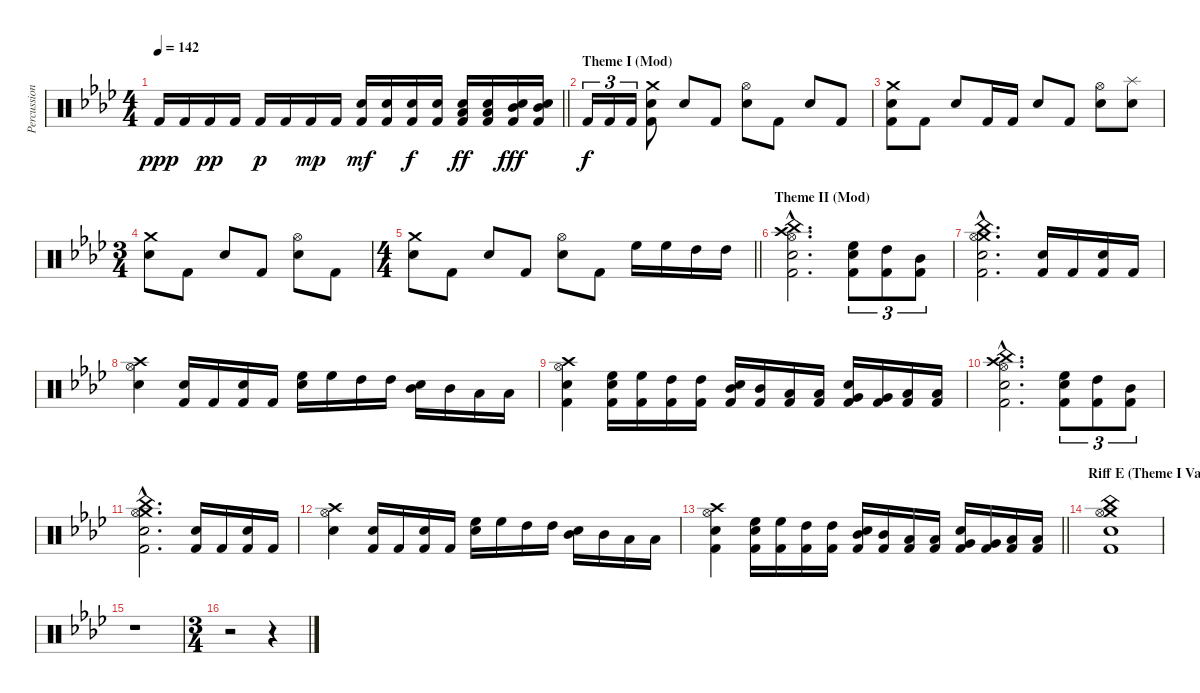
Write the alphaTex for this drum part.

\track ("Percussion" "Percussion") {instrument percussion}
\staff {score}
\articulation defaults
\ts (4 4)
\tempo 142
\clef neutral
\barLineRight lightlight
\ks fminor "Kick (hit) 2".16{dy ppp} "Kick (hit) 2".16 "Kick (hit) 2".16{dy pp} "Kick (hit) 2".16 "Kick (hit) 2".16{dy p} "Kick (hit) 2".16 "Kick (hit) 2".16{dy mp} "Kick (hit) 2".16
("Snare (hit) 2" "Kick (hit) 2").16{dy mf} ("Snare (hit) 2" "Kick (hit) 2").16 ("Snare (hit) 2" "Kick (hit) 2").16{dy f} ("Snare (hit) 2" "Kick (hit) 2").16 ("Low Tom (hit)" "Snare (hit) 2" "Kick (hit) 2").16{dy ff} ("Low Tom (hit)" "Snare (hit) 2" "Kick (hit) 2").16 ("Mid Tom (hit)" "Snare (hit) 2" "Kick (hit) 2").16{dy fff} ("Mid Tom (hit)" "Snare (hit) 2" "Kick (hit) 2").16 |
\section ("" "Theme I (Mod)")
"Kick (hit) 2".16{tu (3 2) dy f} "Kick (hit) 2".16{tu (3 2)} "Kick (hit) 2".16{tu (3 2)} ("Crash medium (hit)" "Snare (hit) 2" "Kick (hit) 2").8 "Snare (hit) 2".8 "Kick (hit) 2".8 ("Hi-Hat (open)" "Snare (hit) 2").8 "Kick (hit) 2".8 "Snare (hit) 2".8 "Kick (hit) 2".8 |
("Crash medium (hit)" "Snare (hit) 2" "Kick (hit) 2").8 "Kick (hit) 2".8 "Snare (hit) 2".8 "Kick (hit) 2".16 "Kick (hit) 2".16 "Snare (hit) 2".8 "Kick (hit) 2".8 ("Hi-Hat (open)" "Snare (hit) 2").8 ("Splash (hit)" "Snare (hit) 2").8 |
\ts (3 4)
("Crash medium (hit)" "Snare (hit) 2").8 "Kick (hit) 2".8 "Snare (hit) 2".8 "Kick (hit) 2".8 ("Hi-Hat (open)" "Snare (hit) 2").8 "Kick (hit) 2".8 |
\ts (4 4)
\barLineRight lightlight
("Crash medium (hit)" "Snare (hit) 2").8 "Kick (hit) 2".8 "Snare (hit) 2".8 "Kick (hit) 2".8 ("Hi-Hat (open)" "Snare (hit) 2").8 "Kick (hit) 2".8 "High Floor Tom (hit)".16 "High Floor Tom (hit)".16 "High Tom (hit)".16 "High Tom (hit)".16 |
\section ("" "Theme II (Mod)")
("Crash high (hit)"{hac} "China (hit)"{hac} "Hi-Hat (open)"{hac} "Snare (hit) 2"{hac} "Kick (hit) 2"{hac}).2{d} ("High Floor Tom (hit)" "Snare (hit) 2" "Kick (hit) 2").8{tu (3 2)} ("High Tom (hit)" "Kick (hit) 2").8{tu (3 2)} ("Mid Tom (hit)" "Kick (hit) 2").8{tu (3 2)} |
("Crash medium (hit)"{hac} "China (hit)"{hac} "Hi-Hat (open)"{hac} "Snare (hit) 2"{hac} "Kick (hit) 2"{hac}).2{d} ("Snare (hit) 2" "Kick (hit) 2").16 "Kick (hit) 2".16 ("Snare (hit) 2" "Kick (hit) 2").16 "Kick (hit) 2".16 |
("Crash high (hit)" "Hi-Hat (open)" "Snare (hit) 2").4 ("Snare (hit) 2" "Kick (hit) 2").16 "Kick (hit) 2".16 ("Snare (hit) 2" "Kick (hit) 2").16 "Kick (hit) 2".16 ("High Floor Tom (hit)" "Snare (hit) 2").16 "High Floor Tom (hit)".16 "High Tom (hit)".16 "High Tom (hit)".16 ("Mid Tom (hit)" "Snare (hit) 2").16 "Mid Tom (hit)".16 "Low Tom (hit)".16 "Low Tom (hit)".16 |
("Crash high (hit)" "Hi-Hat (open)" "Snare (hit) 2" "Kick (hit) 2").4 ("High Floor Tom (hit)" "Snare (hit) 2" "Kick (hit) 2").16 ("High Floor Tom (hit)" "Kick (hit) 2").16 ("High Tom (hit)" "Kick (hit) 2").16 ("High Tom (hit)" "Kick (hit) 2").16 ("Mid Tom (hit)" "Snare (hit) 2" "Kick (hit) 2").16 ("Mid Tom (hit)" "Kick (hit) 2").16 ("Low Tom (hit)" "Kick (hit) 2").16 ("Low Tom (hit)" "Kick (hit) 2").16 ("Snare (hit) 2" "Very Low Tom (hit)" "Kick (hit) 2").16 ("Very Low Tom (hit)" "Kick (hit) 2").16 ("Low Floor Tom (hit)" "Kick (hit) 2").16 ("Low Floor Tom (hit)" "Kick (hit) 2").16 |
("Crash high (hit)"{hac} "China (hit)"{hac} "Hi-Hat (open)"{hac} "Snare (hit) 2"{hac} "Kick (hit) 2"{hac}).2{d} ("High Floor Tom (hit)" "Snare (hit) 2" "Kick (hit) 2").8{tu (3 2)} ("High Tom (hit)" "Kick (hit) 2").8{tu (3 2)} ("Mid Tom (hit)" "Kick (hit) 2").8{tu (3 2)} |
("Crash medium (hit)"{hac} "China (hit)"{hac} "Hi-Hat (open)"{hac} "Snare (hit) 2"{hac} "Kick (hit) 2"{hac}).2{d} ("Snare (hit) 2" "Kick (hit) 2").16 "Kick (hit) 2".16 ("Snare (hit) 2" "Kick (hit) 2").16 "Kick (hit) 2".16 |
("Crash high (hit)" "Hi-Hat (open)" "Snare (hit) 2").4 ("Snare (hit) 2" "Kick (hit) 2").16 "Kick (hit) 2".16 ("Snare (hit) 2" "Kick (hit) 2").16 "Kick (hit) 2".16 ("High Floor Tom (hit)" "Snare (hit) 2").16 "High Floor Tom (hit)".16 "High Tom (hit)".16 "High Tom (hit)".16 ("Mid Tom (hit)" "Snare (hit) 2").16 "Mid Tom (hit)".16 "Low Tom (hit)".16 "Low Tom (hit)".16 |
\barLineRight lightlight
("Crash high (hit)" "Hi-Hat (open)" "Snare (hit) 2" "Kick (hit) 2").4 ("High Floor Tom (hit)" "Snare (hit) 2" "Kick (hit) 2").16 ("High Floor Tom (hit)" "Kick (hit) 2").16 ("High Tom (hit)" "Kick (hit) 2").16 ("High Tom (hit)" "Kick (hit) 2").16 ("Mid Tom (hit)" "Snare (hit) 2" "Kick (hit) 2").16 ("Mid Tom (hit)" "Kick (hit) 2").16 ("Low Tom (hit)" "Kick (hit) 2").16 ("Low Tom (hit)" "Kick (hit) 2").16 ("Snare (hit) 2" "Very Low Tom (hit)" "Kick (hit) 2").16 ("Very Low Tom (hit)" "Kick (hit) 2").16 ("Low Floor Tom (hit)" "Kick (hit) 2").16 ("Low Floor Tom (hit)" "Kick (hit) 2").16 |
\section ("" "Riff E (Theme I Var)")
("Crash medium (hit)" "China (hit)" "Hi-Hat (open)" "Snare (hit) 2" "Kick (hit) 2").1 |
r.1 |
\ts (3 4)
r.2 r.4
